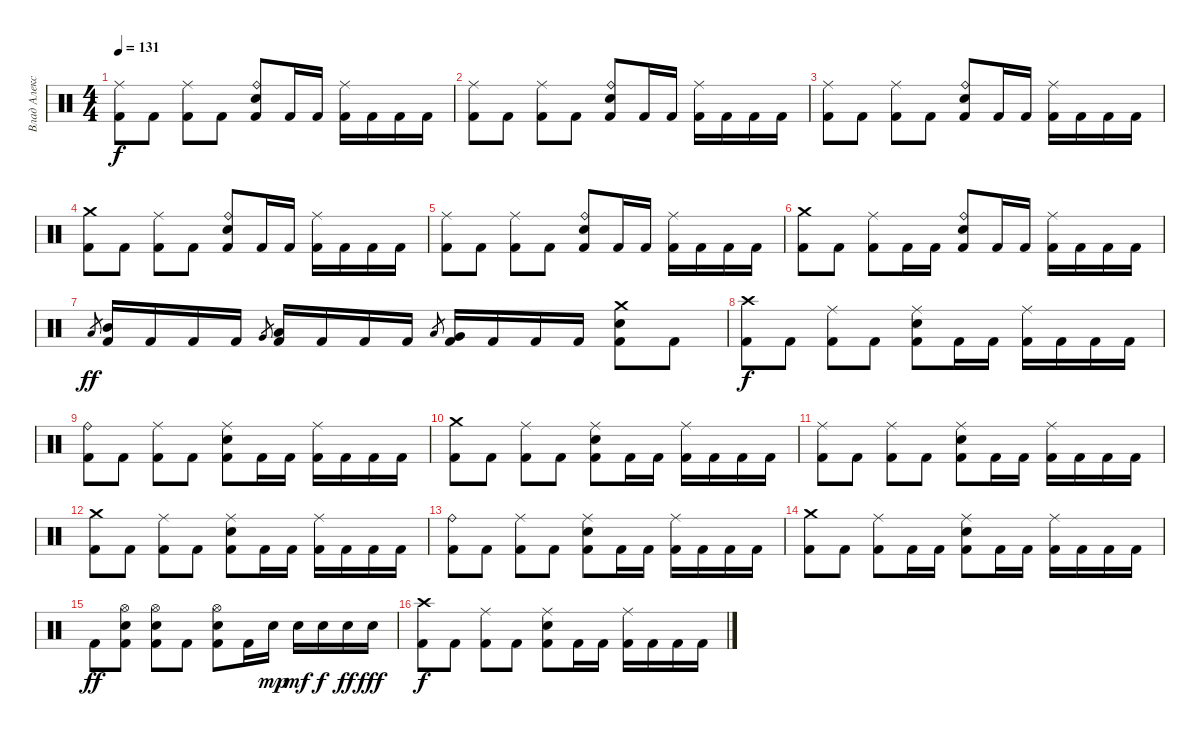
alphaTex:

\track ("Влад Алексеенко" "Влад Алекс") {instrument percussion}
\staff {score}
\articulation defaults
\ts (4 4)
\tempo 131
\clef neutral
\ks c
("Ride (middle)" "Kick (hit) 2").8{dy f} "Kick (hit) 2".8 ("Ride (middle)" "Kick (hit) 2").8 "Kick (hit) 2".8 ("Ride (bell)" "Electric Snare (hit)" "Kick (hit) 2").8 "Kick (hit) 2".16 "Kick (hit) 2".16 ("Ride (middle)" "Kick (hit) 2").16 "Kick (hit) 2".16 "Kick (hit) 2".16 "Kick (hit) 2".16 |
("Ride (middle)" "Kick (hit) 2").8 "Kick (hit) 2".8 ("Ride (middle)" "Kick (hit) 2").8 "Kick (hit) 2".8 ("Ride (bell)" "Electric Snare (hit)" "Kick (hit) 2").8 "Kick (hit) 2".16 "Kick (hit) 2".16 ("Ride (middle)" "Kick (hit) 2").16 "Kick (hit) 2".16 "Kick (hit) 2".16 "Kick (hit) 2".16 |
("Ride (middle)" "Kick (hit) 2").8 "Kick (hit) 2".8 ("Ride (middle)" "Kick (hit) 2").8 "Kick (hit) 2".8 ("Ride (bell)" "Electric Snare (hit)" "Kick (hit) 2").8 "Kick (hit) 2".16 "Kick (hit) 2".16 ("Ride (middle)" "Kick (hit) 2").16 "Kick (hit) 2".16 "Kick (hit) 2".16 "Kick (hit) 2".16 |
("Crash medium (hit)" "Kick (hit) 2").8 "Kick (hit) 2".8 ("Ride (middle)" "Kick (hit) 2").8 "Kick (hit) 2".8 ("Ride (bell)" "Electric Snare (hit)" "Kick (hit) 2").8 "Kick (hit) 2".16 "Kick (hit) 2".16 ("Ride (middle)" "Kick (hit) 2").16 "Kick (hit) 2".16 "Kick (hit) 2".16 "Kick (hit) 2".16 |
("Ride (middle)" "Kick (hit) 2").8 "Kick (hit) 2".8 ("Ride (middle)" "Kick (hit) 2").8 "Kick (hit) 2".8 ("Ride (bell)" "Electric Snare (hit)" "Kick (hit) 2").8 "Kick (hit) 2".16 "Kick (hit) 2".16 ("Ride (middle)" "Kick (hit) 2").16 "Kick (hit) 2".16 "Kick (hit) 2".16 "Kick (hit) 2".16 |
("Crash medium (hit)" "Kick (hit) 2").8 "Kick (hit) 2".8 ("Ride (middle)" "Kick (hit) 2").8 "Kick (hit) 2".16 "Kick (hit) 2".16 ("Ride (bell)" "Electric Snare (hit)" "Kick (hit) 2").8 "Kick (hit) 2".16 "Kick (hit) 2".16 ("Ride (middle)" "Kick (hit) 2").16 "Kick (hit) 2".16 "Kick (hit) 2".16 "Kick (hit) 2".16 |
"Low Tom (hit)".8{gr dy ff} ("Mid Tom (hit)" "Kick (hit) 2").16 "Kick (hit) 2".16 "Kick (hit) 2".16 "Kick (hit) 2".16 "Very Low Tom (hit)".8{gr} ("Low Tom (hit)" "Kick (hit) 2").16 "Kick (hit) 2".16 "Kick (hit) 2".16 "Kick (hit) 2".16 "Low Floor Tom (hit)".8{gr} ("Very Low Tom (hit)" "Kick (hit) 2").16 "Kick (hit) 2".16 "Kick (hit) 2".16 "Kick (hit) 2".16 ("Crash medium (hit)" "Electric Snare (hit)" "Kick (hit) 2").8 "Kick (hit) 2".8 |
("Crash high (hit)" "Kick (hit) 2").8{dy f} "Kick (hit) 2".8 ("Ride (middle)" "Kick (hit) 2").8 "Kick (hit) 2".8 ("Ride (middle)" "Electric Snare (hit)" "Kick (hit) 2").8 "Kick (hit) 2".16 "Kick (hit) 2".16 ("Ride (middle)" "Kick (hit) 2").16 "Kick (hit) 2".16 "Kick (hit) 2".16 "Kick (hit) 2".16 |
("Ride (bell)" "Kick (hit) 2").8 "Kick (hit) 2".8 ("Ride (middle)" "Kick (hit) 2").8 "Kick (hit) 2".8 ("Ride (middle)" "Electric Snare (hit)" "Kick (hit) 2").8 "Kick (hit) 2".16 "Kick (hit) 2".16 ("Ride (middle)" "Kick (hit) 2").16 "Kick (hit) 2".16 "Kick (hit) 2".16 "Kick (hit) 2".16 |
("Crash medium (hit)" "Kick (hit) 2").8 "Kick (hit) 2".8 ("Ride (middle)" "Kick (hit) 2").8 "Kick (hit) 2".8 ("Ride (middle)" "Electric Snare (hit)" "Kick (hit) 2").8 "Kick (hit) 2".16 "Kick (hit) 2".16 ("Ride (middle)" "Kick (hit) 2").16 "Kick (hit) 2".16 "Kick (hit) 2".16 "Kick (hit) 2".16 |
("Ride (middle)" "Kick (hit) 2").8 "Kick (hit) 2".8 ("Ride (middle)" "Kick (hit) 2").8 "Kick (hit) 2".8 ("Ride (middle)" "Electric Snare (hit)" "Kick (hit) 2").8 "Kick (hit) 2".16 "Kick (hit) 2".16 ("Ride (middle)" "Kick (hit) 2").16 "Kick (hit) 2".16 "Kick (hit) 2".16 "Kick (hit) 2".16 |
("Crash medium (hit)" "Kick (hit) 2").8 "Kick (hit) 2".8 ("Ride (middle)" "Kick (hit) 2").8 "Kick (hit) 2".8 ("Ride (middle)" "Electric Snare (hit)" "Kick (hit) 2").8 "Kick (hit) 2".16 "Kick (hit) 2".16 ("Ride (middle)" "Kick (hit) 2").16 "Kick (hit) 2".16 "Kick (hit) 2".16 "Kick (hit) 2".16 |
("Ride (bell)" "Kick (hit) 2").8 "Kick (hit) 2".8 ("Ride (middle)" "Kick (hit) 2").8 "Kick (hit) 2".8 ("Ride (middle)" "Electric Snare (hit)" "Kick (hit) 2").8 "Kick (hit) 2".16 "Kick (hit) 2".16 ("Ride (middle)" "Kick (hit) 2").16 "Kick (hit) 2".16 "Kick (hit) 2".16 "Kick (hit) 2".16 |
("Crash medium (hit)" "Kick (hit) 2").8 "Kick (hit) 2".8 ("Ride (middle)" "Kick (hit) 2").8 "Kick (hit) 2".16 "Kick (hit) 2".16 ("Ride (middle)" "Electric Snare (hit)" "Kick (hit) 2").8 "Kick (hit) 2".16 "Kick (hit) 2".16 ("Ride (middle)" "Kick (hit) 2").16 "Kick (hit) 2".16 "Kick (hit) 2".16 "Kick (hit) 2".16 |
"Kick (hit) 2".8{dy ff} ("Hi-Hat (open)" "Electric Snare (hit)" "Kick (hit) 2").8 ("Hi-Hat (open)" "Electric Snare (hit)" "Kick (hit) 2").8 "Kick (hit) 2".8 ("Hi-Hat (open)" "Electric Snare (hit)" "Kick (hit) 2").8 "Kick (hit) 2".16 "Electric Snare (hit)".16{dy mp} "Electric Snare (hit)".16{dy mf} "Electric Snare (hit)".16{dy f} "Electric Snare (hit)".16{dy ff} "Electric Snare (hit)".16{dy fff} |
("Crash high (hit)" "Kick (hit) 2").8{dy f} "Kick (hit) 2".8 ("Ride (middle)" "Kick (hit) 2").8 "Kick (hit) 2".8 ("Ride (middle)" "Electric Snare (hit)" "Kick (hit) 2").8 "Kick (hit) 2".16 "Kick (hit) 2".16 ("Ride (middle)" "Kick (hit) 2").16 "Kick (hit) 2".16 "Kick (hit) 2".16 "Kick (hit) 2".16
